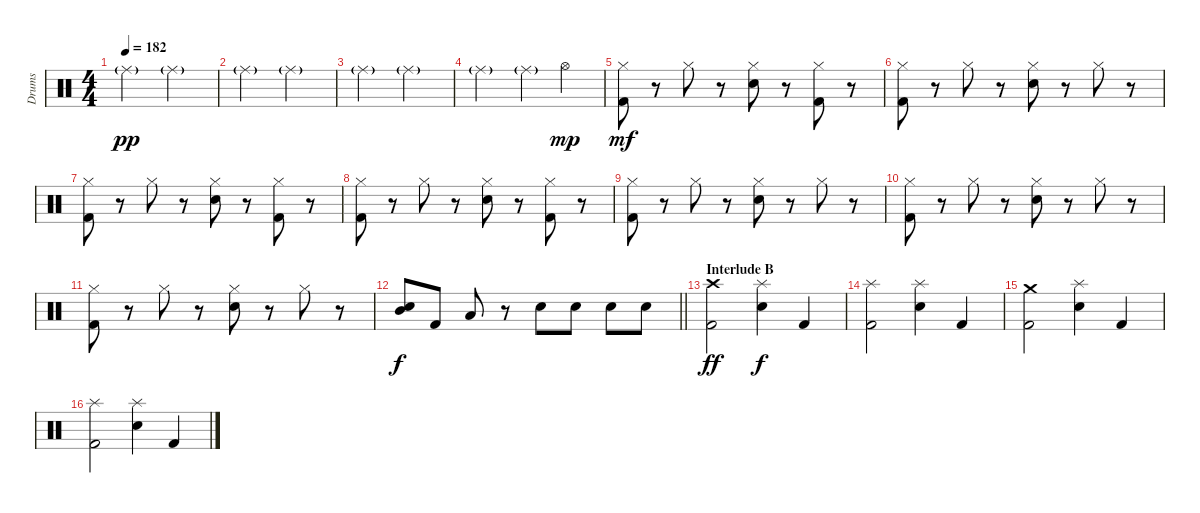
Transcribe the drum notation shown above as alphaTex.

\track ("Drums" "Drums") {instrument percussion}
\staff {score}
\articulation defaults
\ts (4 4)
\tempo 182
\clef neutral
\ks c "Ride (middle)"{g}.2{dy pp} "Ride (middle)"{g}.2
|
"Ride (middle)"{g}.2 "Ride (middle)"{g}.2 |
"Ride (middle)"{g}.2 "Ride (middle)"{g}.2 |
"Ride (middle)"{g}.2 "Ride (middle)"{g}.4 "Hi-Hat (open)".4{dy mp} |
("Hi-Hat (closed)" "Kick (hit) 2").8{dy mf} r.8 "Hi-Hat (closed)".8 r.8 ("Hi-Hat (closed)" "Snare (hit) 2").8 r.8 ("Hi-Hat (closed)" "Kick (hit) 2").8 r.8 |
("Hi-Hat (closed)" "Kick (hit) 2").8 r.8 "Hi-Hat (closed)".8 r.8 ("Hi-Hat (closed)" "Snare (hit) 2").8 r.8 "Hi-Hat (closed)".8 r.8 |
("Hi-Hat (closed)" "Kick (hit) 2").8 r.8 "Hi-Hat (closed)".8 r.8 ("Hi-Hat (closed)" "Snare (hit) 2").8 r.8 ("Hi-Hat (closed)" "Kick (hit) 2").8 r.8 |
("Hi-Hat (closed)" "Kick (hit) 2").8 r.8 "Hi-Hat (closed)".8 r.8 ("Hi-Hat (closed)" "Snare (hit) 2").8 r.8 ("Hi-Hat (closed)" "Kick (hit) 2").8 r.8 |
("Hi-Hat (closed)" "Kick (hit) 2").8 r.8 "Hi-Hat (closed)".8 r.8 ("Hi-Hat (closed)" "Snare (hit) 2").8 r.8 "Hi-Hat (closed)".8 r.8 |
("Hi-Hat (closed)" "Kick (hit) 2").8 r.8 "Hi-Hat (closed)".8 r.8 ("Hi-Hat (closed)" "Snare (hit) 2").8 r.8 "Hi-Hat (closed)".8 r.8 |
("Hi-Hat (closed)" "Kick (hit) 2").8 r.8 "Hi-Hat (closed)".8 r.8 ("Hi-Hat (closed)" "Snare (hit) 2").8 r.8 "Hi-Hat (closed)".8 r.8 |
\barLineRight lightlight
("Mid Tom (hit)" "Snare (hit) 2").8{dy f} "Kick (hit) 2".8 "Low Floor Tom (hit)".8 r.8 "Snare (hit) 2".8 "Snare (hit) 2".8 "Snare (hit) 2".8 "Snare (hit) 2".8 |
\section ("" "Interlude B")
("Crash high (hit)" "Kick (hit) 2").2{dy ff} ("Splash (hit)" "Snare (hit) 2").4{dy f} "Kick (hit) 2".4 |
("Splash (hit)" "Kick (hit) 2").2 ("Splash (hit)" "Snare (hit) 2").4 "Kick (hit) 2".4 |
("Crash medium (hit)" "Kick (hit) 2").2 ("Splash (hit)" "Snare (hit) 2").4 "Kick (hit) 2".4 |
("Splash (hit)" "Kick (hit) 2").2 ("Splash (hit)" "Snare (hit) 2").4 "Kick (hit) 2".4
